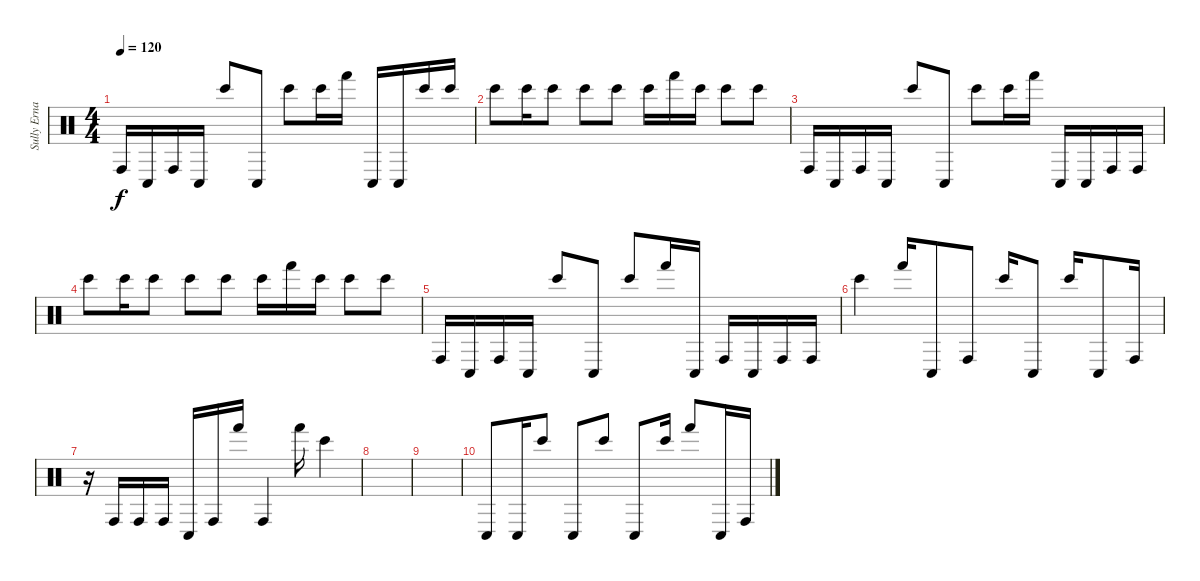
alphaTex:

\track ("Sully Erna" "Sully Erna") {instrument percussion}
\staff {score}
\articulation defaults
\ts (4 4)
\tempo 120
\clef neutral
\ks c "Conga high (hit)".16{dy f} "Conga low (hit)".16 "Conga high (hit)".16 "Conga low (hit)".16 "Bongo High (hit)".8 "Conga low (hit)".8 "Bongo High (hit)".8 "Bongo High (hit)".16 "Hand (hit)".16 "Conga low (hit)".16 "Conga low (hit)".16 "Bongo High (hit)".16 "Bongo High (hit)".16
|
"Bongo High (hit)".8 "Bongo High (hit)".16 "Bongo High (hit)".8 "Bongo High (hit)".8 "Bongo High (hit)".8 "Bongo High (hit)".16 "Hand (hit)".16 "Bongo High (hit)".16 "Bongo High (hit)".8 "Bongo High (hit)".8 |
"Conga high (hit)".16 "Conga low (hit)".16 "Conga high (hit)".16 "Conga low (hit)".16 "Bongo High (hit)".8 "Conga low (hit)".8 "Bongo High (hit)".8 "Bongo High (hit)".16 "Hand (hit)".16 "Conga low (hit)".16 "Conga low (hit)".16 "Conga high (hit)".16 "Conga high (hit)".16 |
"Bongo High (hit)".8 "Bongo High (hit)".16 "Bongo High (hit)".8 "Bongo High (hit)".8 "Bongo High (hit)".8 "Bongo High (hit)".16 "Hand (hit)".16 "Bongo High (hit)".16 "Bongo High (hit)".8 "Bongo High (hit)".8 |
"Conga high (hit)".16 "Conga low (hit)".16 "Conga high (hit)".16 "Conga low (hit)".16 "Bongo High (hit)".8 "Conga low (hit)".8 "Bongo High (hit)".8 "Hand (hit)".16 "Conga low (hit)".16 "Conga high (hit)".16 "Conga low (hit)".16 "Conga high (hit)".16 "Conga high (hit)".16 |
"Bongo High (hit)".4 "Hand (hit)".16 "Conga low (hit)".8 "Conga high (hit)".8 "Bongo High (hit)".16 "Conga low (hit)".8 "Bongo High (hit)".16 "Conga low (hit)".8 "Conga high (hit)".16 |
r.16 "Conga high (hit)".16 "Conga high (hit)".16 "Conga high (hit)".16 "Conga low (hit)".16 "Conga high (hit)".16 "Hand (hit)".16 "Conga high (hit)".4 "Hand (hit)".16 "Bongo High (hit)".4 |
|
|
"Conga low (hit)".8 "Conga low (hit)".16 "Bongo High (hit)".8 "Conga low (hit)".8 "Bongo High (hit)".8 "Conga low (hit)".8 "Bongo High (hit)".16 "Hand (hit)".8 "Conga low (hit)".16 "Conga high (hit)".16
